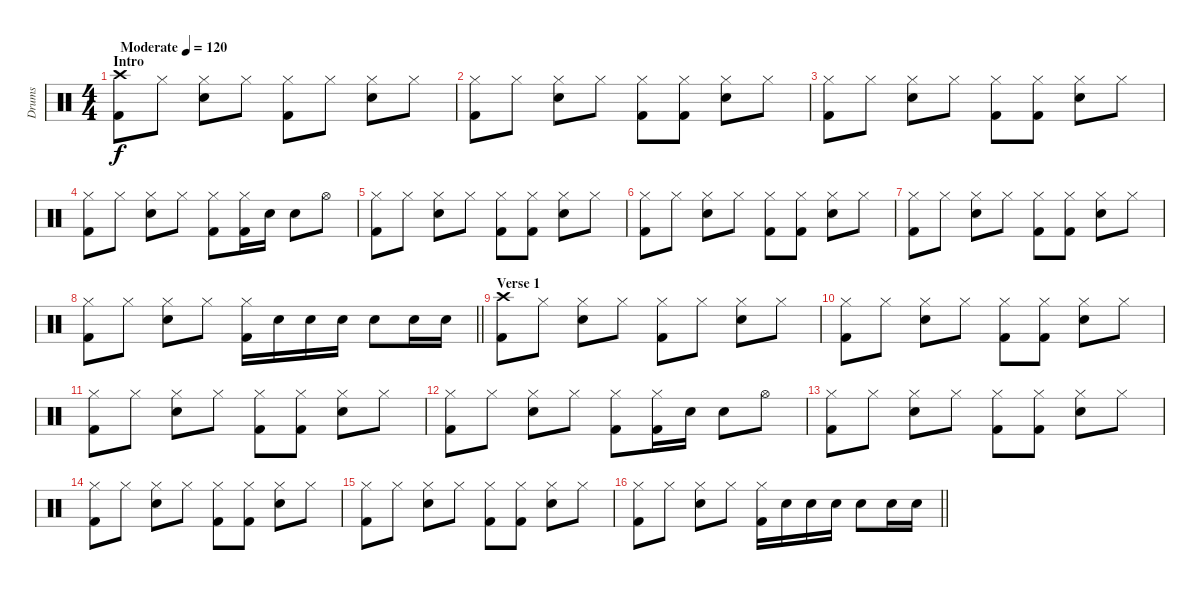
\track ("Drums" "Drums") {instrument percussion}
\staff {score}
\articulation defaults
\ts (4 4)
\section ("" "Intro")
\tempo (120 "Moderate")
\clef neutral
\ks c
("Crash high (hit)" "Kick (hit) 2").8{dy f} "Hi-Hat (closed)".8 ("Hi-Hat (closed)" "Electric Snare (hit)").8 "Hi-Hat (closed)".8 ("Hi-Hat (closed)" "Kick (hit) 2").8 "Hi-Hat (closed)".8 ("Hi-Hat (closed)" "Electric Snare (hit)").8 "Hi-Hat (closed)".8 |
("Hi-Hat (closed)" "Kick (hit) 2").8 "Hi-Hat (closed)".8 ("Hi-Hat (closed)" "Electric Snare (hit)").8 "Hi-Hat (closed)".8 ("Hi-Hat (closed)" "Kick (hit) 2").8 ("Hi-Hat (closed)" "Kick (hit) 2").8 ("Hi-Hat (closed)" "Electric Snare (hit)").8 "Hi-Hat (closed)".8 |
("Hi-Hat (closed)" "Kick (hit) 2").8 "Hi-Hat (closed)".8 ("Hi-Hat (closed)" "Electric Snare (hit)").8 "Hi-Hat (closed)".8 ("Hi-Hat (closed)" "Kick (hit) 2").8 ("Hi-Hat (closed)" "Kick (hit) 2").8 ("Hi-Hat (closed)" "Electric Snare (hit)").8 "Hi-Hat (closed)".8 |
("Hi-Hat (closed)" "Kick (hit) 2").8 "Hi-Hat (closed)".8 ("Hi-Hat (closed)" "Electric Snare (hit)").8 "Hi-Hat (closed)".8 ("Hi-Hat (closed)" "Kick (hit) 2").8 ("Hi-Hat (closed)" "Kick (hit) 2").16 "Electric Snare (hit)".16 "Electric Snare (hit)".8 "Hi-Hat (open)".8 |
("Hi-Hat (closed)" "Kick (hit) 2").8 "Hi-Hat (closed)".8 ("Hi-Hat (closed)" "Electric Snare (hit)").8 "Hi-Hat (closed)".8 ("Hi-Hat (closed)" "Kick (hit) 2").8 ("Hi-Hat (closed)" "Kick (hit) 2").8 ("Hi-Hat (closed)" "Electric Snare (hit)").8 "Hi-Hat (closed)".8 |
("Hi-Hat (closed)" "Kick (hit) 2").8 "Hi-Hat (closed)".8 ("Hi-Hat (closed)" "Electric Snare (hit)").8 "Hi-Hat (closed)".8 ("Hi-Hat (closed)" "Kick (hit) 2").8 ("Hi-Hat (closed)" "Kick (hit) 2").8 ("Hi-Hat (closed)" "Electric Snare (hit)").8 "Hi-Hat (closed)".8 |
("Hi-Hat (closed)" "Kick (hit) 2").8 "Hi-Hat (closed)".8 ("Hi-Hat (closed)" "Electric Snare (hit)").8 "Hi-Hat (closed)".8 ("Hi-Hat (closed)" "Kick (hit) 2").8 ("Hi-Hat (closed)" "Kick (hit) 2").8 ("Hi-Hat (closed)" "Electric Snare (hit)").8 "Hi-Hat (closed)".8 |
\barLineRight lightlight
("Hi-Hat (closed)" "Kick (hit) 2").8 "Hi-Hat (closed)".8 ("Hi-Hat (closed)" "Electric Snare (hit)").8 "Hi-Hat (closed)".8 ("Hi-Hat (closed)" "Kick (hit) 2").16 "Electric Snare (hit)".16 "Electric Snare (hit)".16 "Electric Snare (hit)".16 "Electric Snare (hit)".8 "Electric Snare (hit)".16 "Electric Snare (hit)".16 |
\section ("" "Verse 1")
("Crash high (hit)" "Kick (hit) 2").8 "Hi-Hat (closed)".8 ("Hi-Hat (closed)" "Electric Snare (hit)").8 "Hi-Hat (closed)".8 ("Hi-Hat (closed)" "Kick (hit) 2").8 "Hi-Hat (closed)".8 ("Hi-Hat (closed)" "Electric Snare (hit)").8 "Hi-Hat (closed)".8 |
("Hi-Hat (closed)" "Kick (hit) 2").8 "Hi-Hat (closed)".8 ("Hi-Hat (closed)" "Electric Snare (hit)").8 "Hi-Hat (closed)".8 ("Hi-Hat (closed)" "Kick (hit) 2").8 ("Hi-Hat (closed)" "Kick (hit) 2").8 ("Hi-Hat (closed)" "Electric Snare (hit)").8 "Hi-Hat (closed)".8 |
("Hi-Hat (closed)" "Kick (hit) 2").8 "Hi-Hat (closed)".8 ("Hi-Hat (closed)" "Electric Snare (hit)").8 "Hi-Hat (closed)".8 ("Hi-Hat (closed)" "Kick (hit) 2").8 ("Hi-Hat (closed)" "Kick (hit) 2").8 ("Hi-Hat (closed)" "Electric Snare (hit)").8 "Hi-Hat (closed)".8 |
("Hi-Hat (closed)" "Kick (hit) 2").8 "Hi-Hat (closed)".8 ("Hi-Hat (closed)" "Electric Snare (hit)").8 "Hi-Hat (closed)".8 ("Hi-Hat (closed)" "Kick (hit) 2").8 ("Hi-Hat (closed)" "Kick (hit) 2").16 "Electric Snare (hit)".16 "Electric Snare (hit)".8 "Hi-Hat (open)".8 |
("Hi-Hat (closed)" "Kick (hit) 2").8 "Hi-Hat (closed)".8 ("Hi-Hat (closed)" "Electric Snare (hit)").8 "Hi-Hat (closed)".8 ("Hi-Hat (closed)" "Kick (hit) 2").8 ("Hi-Hat (closed)" "Kick (hit) 2").8 ("Hi-Hat (closed)" "Electric Snare (hit)").8 "Hi-Hat (closed)".8 |
("Hi-Hat (closed)" "Kick (hit) 2").8 "Hi-Hat (closed)".8 ("Hi-Hat (closed)" "Electric Snare (hit)").8 "Hi-Hat (closed)".8 ("Hi-Hat (closed)" "Kick (hit) 2").8 ("Hi-Hat (closed)" "Kick (hit) 2").8 ("Hi-Hat (closed)" "Electric Snare (hit)").8 "Hi-Hat (closed)".8 |
("Hi-Hat (closed)" "Kick (hit) 2").8 "Hi-Hat (closed)".8 ("Hi-Hat (closed)" "Electric Snare (hit)").8 "Hi-Hat (closed)".8 ("Hi-Hat (closed)" "Kick (hit) 2").8 ("Hi-Hat (closed)" "Kick (hit) 2").8 ("Hi-Hat (closed)" "Electric Snare (hit)").8 "Hi-Hat (closed)".8 |
\barLineRight lightlight
("Hi-Hat (closed)" "Kick (hit) 2").8 "Hi-Hat (closed)".8 ("Hi-Hat (closed)" "Electric Snare (hit)").8 "Hi-Hat (closed)".8 ("Hi-Hat (closed)" "Kick (hit) 2").16 "Electric Snare (hit)".16 "Electric Snare (hit)".16 "Electric Snare (hit)".16 "Electric Snare (hit)".8 "Electric Snare (hit)".16 "Electric Snare (hit)".16
